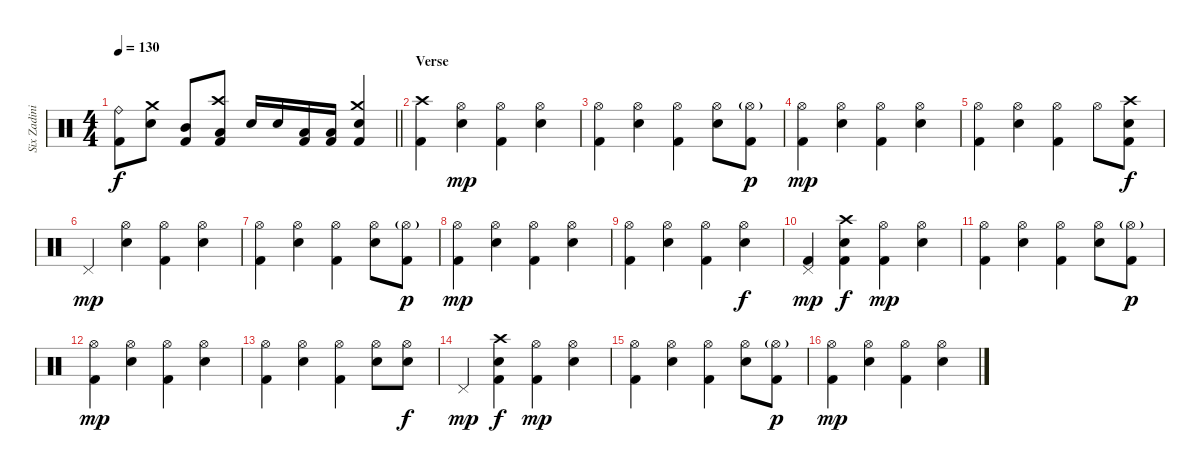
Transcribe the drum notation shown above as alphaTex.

\track ("Six Zadinia" "Six Zadini") {instrument percussion}
\staff {score}
\articulation defaults
\ts (4 4)
\tempo 130
\clef neutral
\barLineRight lightlight
\ks c
("Ride (bell)" "Kick (hit) 2").8{dy f} ("Crash medium (hit)" "Electric Snare (hit)").8 ("Mid Tom (hit)" "Kick (hit) 2").8 ("Crash high (hit)" "Low Tom (hit)" "Kick (hit) 2").8 "Electric Snare (hit)".16 "Electric Snare (hit)".16 ("Low Tom (hit)" "Kick (hit) 2").16 ("Low Tom (hit)" "Kick (hit) 2").16 ("Crash medium (hit)" "Electric Snare (hit)" "Kick (hit) 2").4 |
\section ("" "Verse")
("Crash high (hit)" "Kick (hit) 2").4 ("Hi-Hat (open)" "Electric Snare (hit)").4{dy mp} ("Hi-Hat (open)" "Kick (hit) 2").4 ("Hi-Hat (open)" "Electric Snare (hit)").4 |
("Hi-Hat (open)" "Kick (hit) 2").4 ("Hi-Hat (open)" "Electric Snare (hit)").4 ("Hi-Hat (open)" "Kick (hit) 2").4 ("Hi-Hat (open)" "Electric Snare (hit)").8 ("Hi-Hat (open)"{g} "Kick (hit) 2").8{dy p} |
("Hi-Hat (open)" "Kick (hit) 2").4{dy mp} ("Hi-Hat (open)" "Electric Snare (hit)").4 ("Hi-Hat (open)" "Kick (hit) 2").4 ("Hi-Hat (open)" "Electric Snare (hit)").4 |
("Hi-Hat (open)" "Kick (hit) 2").4 ("Hi-Hat (open)" "Electric Snare (hit)").4 ("Hi-Hat (open)" "Kick (hit) 2").4 "Hi-Hat (open)".8 ("Crash high (hit)" "Electric Snare (hit)" "Kick (hit) 2").8{dy f} |
"Pedal Hi-Hat (hit)".4{dy mp} ("Hi-Hat (open)" "Electric Snare (hit)").4 ("Hi-Hat (open)" "Kick (hit) 2").4 ("Hi-Hat (open)" "Electric Snare (hit)").4 |
("Hi-Hat (open)" "Kick (hit) 2").4 ("Hi-Hat (open)" "Electric Snare (hit)").4 ("Hi-Hat (open)" "Kick (hit) 2").4 ("Hi-Hat (open)" "Electric Snare (hit)").8 ("Hi-Hat (open)"{g} "Kick (hit) 2").8{dy p} |
("Hi-Hat (open)" "Kick (hit) 2").4{dy mp} ("Hi-Hat (open)" "Electric Snare (hit)").4 ("Hi-Hat (open)" "Kick (hit) 2").4 ("Hi-Hat (open)" "Electric Snare (hit)").4 |
("Hi-Hat (open)" "Kick (hit) 2").4 ("Hi-Hat (open)" "Electric Snare (hit)").4 ("Hi-Hat (open)" "Kick (hit) 2").4 ("Hi-Hat (open)" "Electric Snare (hit)").4{dy f} |
("Pedal Hi-Hat (hit)" "Kick (hit) 2").4{dy mp} ("Crash high (hit)" "Electric Snare (hit)" "Kick (hit) 2").4{dy f} ("Hi-Hat (open)" "Kick (hit) 2").4{dy mp} ("Hi-Hat (open)" "Electric Snare (hit)").4 |
("Hi-Hat (open)" "Kick (hit) 2").4 ("Hi-Hat (open)" "Electric Snare (hit)").4 ("Hi-Hat (open)" "Kick (hit) 2").4 ("Hi-Hat (open)" "Electric Snare (hit)").8 ("Hi-Hat (open)"{g} "Kick (hit) 2").8{dy p} |
("Hi-Hat (open)" "Kick (hit) 2").4{dy mp} ("Hi-Hat (open)" "Electric Snare (hit)").4 ("Hi-Hat (open)" "Kick (hit) 2").4 ("Hi-Hat (open)" "Electric Snare (hit)").4 |
("Hi-Hat (open)" "Kick (hit) 2").4 ("Hi-Hat (open)" "Electric Snare (hit)").4 ("Hi-Hat (open)" "Kick (hit) 2").4 ("Hi-Hat (open)" "Electric Snare (hit)").8 ("Hi-Hat (open)" "Electric Snare (hit)").8{dy f} |
"Pedal Hi-Hat (hit)".4{dy mp} ("Crash high (hit)" "Electric Snare (hit)" "Kick (hit) 2").4{dy f} ("Hi-Hat (open)" "Kick (hit) 2").4{dy mp} ("Hi-Hat (open)" "Electric Snare (hit)").4 |
("Hi-Hat (open)" "Kick (hit) 2").4 ("Hi-Hat (open)" "Electric Snare (hit)").4 ("Hi-Hat (open)" "Kick (hit) 2").4 ("Hi-Hat (open)" "Electric Snare (hit)").8 ("Hi-Hat (open)"{g} "Kick (hit) 2").8{dy p} |
("Hi-Hat (open)" "Kick (hit) 2").4{dy mp} ("Hi-Hat (open)" "Electric Snare (hit)").4 ("Hi-Hat (open)" "Kick (hit) 2").4 ("Hi-Hat (open)" "Electric Snare (hit)").4
